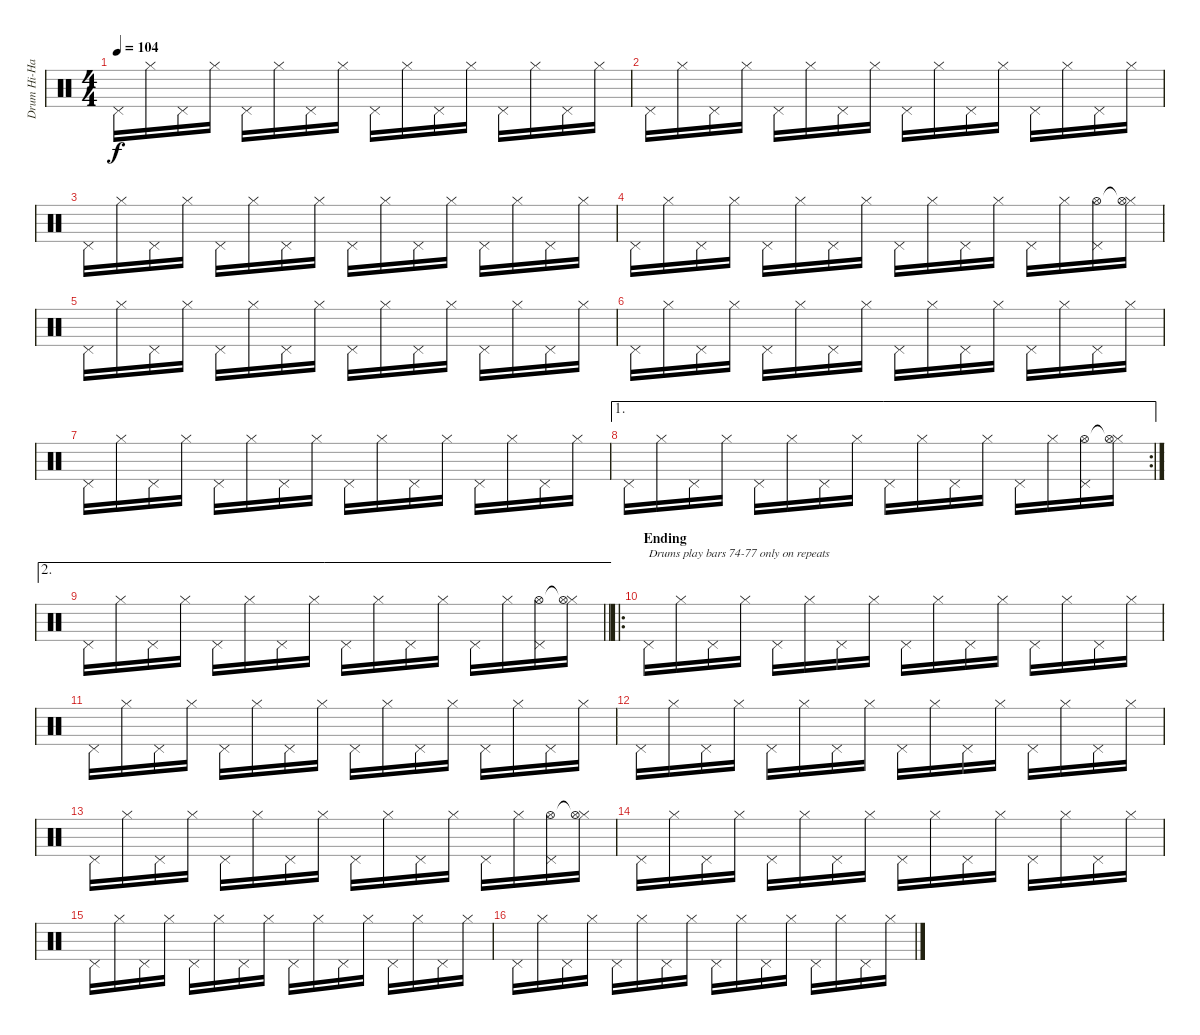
\track ("Drum Hi-Hat" "Drum Hi-Ha") {instrument percussion}
\staff {score}
\articulation defaults
\ts (4 4)
\tempo 104
\clef neutral
\ks c "Pedal Hi-Hat (hit)".16{dy f} "Hi-Hat (closed)".16 "Pedal Hi-Hat (hit)".16 "Hi-Hat (closed)".16 "Pedal Hi-Hat (hit)".16 "Hi-Hat (closed)".16 "Pedal Hi-Hat (hit)".16 "Hi-Hat (closed)".16 "Pedal Hi-Hat (hit)".16 "Hi-Hat (closed)".16 "Pedal Hi-Hat (hit)".16 "Hi-Hat (closed)".16 "Pedal Hi-Hat (hit)".16 "Hi-Hat (closed)".16 "Pedal Hi-Hat (hit)".16 "Hi-Hat (closed)".16
|
"Pedal Hi-Hat (hit)".16 "Hi-Hat (closed)".16 "Pedal Hi-Hat (hit)".16 "Hi-Hat (closed)".16 "Pedal Hi-Hat (hit)".16 "Hi-Hat (closed)".16 "Pedal Hi-Hat (hit)".16 "Hi-Hat (closed)".16 "Pedal Hi-Hat (hit)".16 "Hi-Hat (closed)".16 "Pedal Hi-Hat (hit)".16 "Hi-Hat (closed)".16 "Pedal Hi-Hat (hit)".16 "Hi-Hat (closed)".16 "Pedal Hi-Hat (hit)".16 "Hi-Hat (closed)".16 |
"Pedal Hi-Hat (hit)".16 "Hi-Hat (closed)".16 "Pedal Hi-Hat (hit)".16 "Hi-Hat (closed)".16 "Pedal Hi-Hat (hit)".16 "Hi-Hat (closed)".16 "Pedal Hi-Hat (hit)".16 "Hi-Hat (closed)".16 "Pedal Hi-Hat (hit)".16 "Hi-Hat (closed)".16 "Pedal Hi-Hat (hit)".16 "Hi-Hat (closed)".16 "Pedal Hi-Hat (hit)".16 "Hi-Hat (closed)".16 "Pedal Hi-Hat (hit)".16 "Hi-Hat (closed)".16 |
"Pedal Hi-Hat (hit)".16 "Hi-Hat (closed)".16 "Pedal Hi-Hat (hit)".16 "Hi-Hat (closed)".16 "Pedal Hi-Hat (hit)".16 "Hi-Hat (closed)".16 "Pedal Hi-Hat (hit)".16 "Hi-Hat (closed)".16 "Pedal Hi-Hat (hit)".16 "Hi-Hat (closed)".16 "Pedal Hi-Hat (hit)".16 "Hi-Hat (closed)".16 "Pedal Hi-Hat (hit)".16 "Hi-Hat (closed)".16 ("Pedal Hi-Hat (hit)" "Hi-Hat (open)").16 ("Hi-Hat (closed)" "Hi-Hat (open)"{t}).16 |
"Pedal Hi-Hat (hit)".16 "Hi-Hat (closed)".16 "Pedal Hi-Hat (hit)".16 "Hi-Hat (closed)".16 "Pedal Hi-Hat (hit)".16 "Hi-Hat (closed)".16 "Pedal Hi-Hat (hit)".16 "Hi-Hat (closed)".16 "Pedal Hi-Hat (hit)".16 "Hi-Hat (closed)".16 "Pedal Hi-Hat (hit)".16 "Hi-Hat (closed)".16 "Pedal Hi-Hat (hit)".16 "Hi-Hat (closed)".16 "Pedal Hi-Hat (hit)".16 "Hi-Hat (closed)".16 |
"Pedal Hi-Hat (hit)".16 "Hi-Hat (closed)".16 "Pedal Hi-Hat (hit)".16 "Hi-Hat (closed)".16 "Pedal Hi-Hat (hit)".16 "Hi-Hat (closed)".16 "Pedal Hi-Hat (hit)".16 "Hi-Hat (closed)".16 "Pedal Hi-Hat (hit)".16 "Hi-Hat (closed)".16 "Pedal Hi-Hat (hit)".16 "Hi-Hat (closed)".16 "Pedal Hi-Hat (hit)".16 "Hi-Hat (closed)".16 "Pedal Hi-Hat (hit)".16 "Hi-Hat (closed)".16 |
"Pedal Hi-Hat (hit)".16 "Hi-Hat (closed)".16 "Pedal Hi-Hat (hit)".16 "Hi-Hat (closed)".16 "Pedal Hi-Hat (hit)".16 "Hi-Hat (closed)".16 "Pedal Hi-Hat (hit)".16 "Hi-Hat (closed)".16 "Pedal Hi-Hat (hit)".16 "Hi-Hat (closed)".16 "Pedal Hi-Hat (hit)".16 "Hi-Hat (closed)".16 "Pedal Hi-Hat (hit)".16 "Hi-Hat (closed)".16 "Pedal Hi-Hat (hit)".16 "Hi-Hat (closed)".16 |
\ae 1
\rc 2 "Pedal Hi-Hat (hit)".16 "Hi-Hat (closed)".16 "Pedal Hi-Hat (hit)".16 "Hi-Hat (closed)".16 "Pedal Hi-Hat (hit)".16 "Hi-Hat (closed)".16 "Pedal Hi-Hat (hit)".16 "Hi-Hat (closed)".16 "Pedal Hi-Hat (hit)".16 "Hi-Hat (closed)".16 "Pedal Hi-Hat (hit)".16 "Hi-Hat (closed)".16 "Pedal Hi-Hat (hit)".16 "Hi-Hat (closed)".16
("Pedal Hi-Hat (hit)" "Hi-Hat (open)").16 ("Hi-Hat (closed)" "Hi-Hat (open)"{t}).16 |
\ae 2
\barLineRight lightlight "Pedal Hi-Hat (hit)".16 "Hi-Hat (closed)".16 "Pedal Hi-Hat (hit)".16 "Hi-Hat (closed)".16 "Pedal Hi-Hat (hit)".16 "Hi-Hat (closed)".16 "Pedal Hi-Hat (hit)".16 "Hi-Hat (closed)".16 "Pedal Hi-Hat (hit)".16 "Hi-Hat (closed)".16 "Pedal Hi-Hat (hit)".16 "Hi-Hat (closed)".16 "Pedal Hi-Hat (hit)".16 "Hi-Hat (closed)".16
("Pedal Hi-Hat (hit)" "Hi-Hat (open)").16 ("Hi-Hat (closed)" "Hi-Hat (open)"{t}).16 |
\ro
\section ("" "Ending")
"Pedal Hi-Hat (hit)".16{txt "Drums play bars 74-77 only on repeats"} "Hi-Hat (closed)".16 "Pedal Hi-Hat (hit)".16 "Hi-Hat (closed)".16 "Pedal Hi-Hat (hit)".16 "Hi-Hat (closed)".16 "Pedal Hi-Hat (hit)".16 "Hi-Hat (closed)".16 "Pedal Hi-Hat (hit)".16 "Hi-Hat (closed)".16 "Pedal Hi-Hat (hit)".16 "Hi-Hat (closed)".16 "Pedal Hi-Hat (hit)".16 "Hi-Hat (closed)".16 "Pedal Hi-Hat (hit)".16 "Hi-Hat (closed)".16 |
"Pedal Hi-Hat (hit)".16 "Hi-Hat (closed)".16 "Pedal Hi-Hat (hit)".16 "Hi-Hat (closed)".16 "Pedal Hi-Hat (hit)".16 "Hi-Hat (closed)".16 "Pedal Hi-Hat (hit)".16 "Hi-Hat (closed)".16 "Pedal Hi-Hat (hit)".16 "Hi-Hat (closed)".16 "Pedal Hi-Hat (hit)".16 "Hi-Hat (closed)".16 "Pedal Hi-Hat (hit)".16 "Hi-Hat (closed)".16 "Pedal Hi-Hat (hit)".16 "Hi-Hat (closed)".16 |
"Pedal Hi-Hat (hit)".16 "Hi-Hat (closed)".16 "Pedal Hi-Hat (hit)".16 "Hi-Hat (closed)".16 "Pedal Hi-Hat (hit)".16 "Hi-Hat (closed)".16 "Pedal Hi-Hat (hit)".16 "Hi-Hat (closed)".16 "Pedal Hi-Hat (hit)".16 "Hi-Hat (closed)".16 "Pedal Hi-Hat (hit)".16 "Hi-Hat (closed)".16 "Pedal Hi-Hat (hit)".16 "Hi-Hat (closed)".16 "Pedal Hi-Hat (hit)".16 "Hi-Hat (closed)".16 |
"Pedal Hi-Hat (hit)".16 "Hi-Hat (closed)".16 "Pedal Hi-Hat (hit)".16 "Hi-Hat (closed)".16 "Pedal Hi-Hat (hit)".16 "Hi-Hat (closed)".16 "Pedal Hi-Hat (hit)".16 "Hi-Hat (closed)".16 "Pedal Hi-Hat (hit)".16 "Hi-Hat (closed)".16 "Pedal Hi-Hat (hit)".16 "Hi-Hat (closed)".16 "Pedal Hi-Hat (hit)".16 "Hi-Hat (closed)".16 ("Pedal Hi-Hat (hit)" "Hi-Hat (open)").16 ("Hi-Hat (closed)" "Hi-Hat (open)"{t}).16 |
"Pedal Hi-Hat (hit)".16 "Hi-Hat (closed)".16 "Pedal Hi-Hat (hit)".16 "Hi-Hat (closed)".16 "Pedal Hi-Hat (hit)".16 "Hi-Hat (closed)".16 "Pedal Hi-Hat (hit)".16 "Hi-Hat (closed)".16 "Pedal Hi-Hat (hit)".16 "Hi-Hat (closed)".16 "Pedal Hi-Hat (hit)".16 "Hi-Hat (closed)".16 "Pedal Hi-Hat (hit)".16 "Hi-Hat (closed)".16 "Pedal Hi-Hat (hit)".16 "Hi-Hat (closed)".16 |
"Pedal Hi-Hat (hit)".16 "Hi-Hat (closed)".16 "Pedal Hi-Hat (hit)".16 "Hi-Hat (closed)".16 "Pedal Hi-Hat (hit)".16 "Hi-Hat (closed)".16 "Pedal Hi-Hat (hit)".16 "Hi-Hat (closed)".16 "Pedal Hi-Hat (hit)".16 "Hi-Hat (closed)".16 "Pedal Hi-Hat (hit)".16 "Hi-Hat (closed)".16 "Pedal Hi-Hat (hit)".16 "Hi-Hat (closed)".16 "Pedal Hi-Hat (hit)".16 "Hi-Hat (closed)".16 |
"Pedal Hi-Hat (hit)".16 "Hi-Hat (closed)".16 "Pedal Hi-Hat (hit)".16 "Hi-Hat (closed)".16 "Pedal Hi-Hat (hit)".16 "Hi-Hat (closed)".16 "Pedal Hi-Hat (hit)".16 "Hi-Hat (closed)".16 "Pedal Hi-Hat (hit)".16 "Hi-Hat (closed)".16 "Pedal Hi-Hat (hit)".16 "Hi-Hat (closed)".16 "Pedal Hi-Hat (hit)".16 "Hi-Hat (closed)".16 "Pedal Hi-Hat (hit)".16 "Hi-Hat (closed)".16
